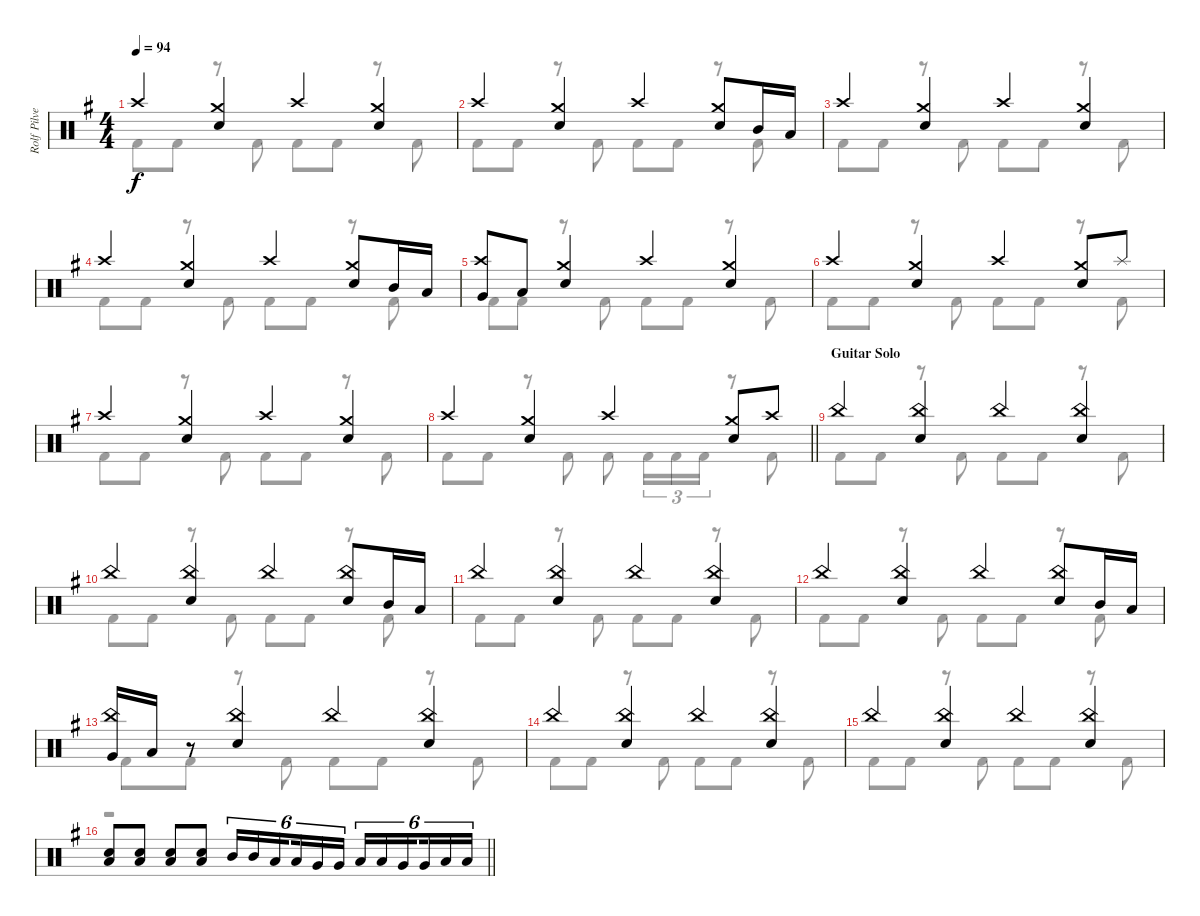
\track ("Rolf Pilve - drums" "Rolf Pilve") {instrument percussion}
\staff {score}
\articulation defaults
\voice
\ts (4 4)
\tempo 94
\clef neutral
\ks eminor "Crash high (hit)".4{dy f}
("Snare (hit) 2" "Crash medium (hit)").4 "Crash high (hit)".4 ("Crash medium (hit)" "Snare (hit) 2").4 |
"Crash high (hit)".4 ("Snare (hit) 2" "Crash medium (hit)").4 "Crash high (hit)".4 ("Crash medium (hit)" "Snare (hit) 2").8 "Mid Tom (hit)".16 "Low Tom (hit)".16 |
"Crash high (hit)".4 ("Snare (hit) 2" "Crash medium (hit)").4 "Crash high (hit)".4 ("Crash medium (hit)" "Snare (hit) 2").4 |
"Crash high (hit)".4 ("Snare (hit) 2" "Crash medium (hit)").4 "Crash high (hit)".4 ("Crash medium (hit)" "Snare (hit) 2").8 "Mid Tom (hit)".16 "Low Tom (hit)".16 |
("Crash high (hit)" "Very Low Tom (hit)").8 "Low Tom (hit)".8 ("Snare (hit) 2" "Crash medium (hit)").4 "Crash high (hit)".4 ("Crash medium (hit)" "Snare (hit) 2").4 |
"Crash high (hit)".4 ("Snare (hit) 2" "Crash medium (hit)").4 "Crash high (hit)".4 ("Crash medium (hit)" "Snare (hit) 2").8 "Splash (hit)".8 |
"Crash high (hit)".4 ("Snare (hit) 2" "Crash medium (hit)").4 "Crash high (hit)".4 ("Crash medium (hit)" "Snare (hit) 2").4 |
\barLineRight lightlight "Crash high (hit)".4
("Snare (hit) 2" "Crash medium (hit)").4 "Crash high (hit)".4 ("Crash medium (hit)" "Snare (hit) 2").8 "Crash high (hit)".8 |
\section ("" "Guitar Solo")
"China (hit)".4 ("Snare (hit) 2" "China (hit)").4 "China (hit)".4 ("Snare (hit) 2" "China (hit)").4 |
"China (hit)".4 ("Snare (hit) 2" "China (hit)").4 "China (hit)".4 ("Snare (hit) 2" "China (hit)").8 "Mid Tom (hit)".16 "Low Tom (hit)".16 |
"China (hit)".4 ("Snare (hit) 2" "China (hit)").4 "China (hit)".4 ("Snare (hit) 2" "China (hit)").4 |
"China (hit)".4 ("Snare (hit) 2" "China (hit)").4 "China (hit)".4 ("Snare (hit) 2" "China (hit)").8 "Mid Tom (hit)".16 "Low Tom (hit)".16 |
("China (hit)" "Very Low Tom (hit)").16 "Low Tom (hit)".16 r.8 ("Snare (hit) 2" "China (hit)").4 "China (hit)".4 ("Snare (hit) 2" "China (hit)").4 |
"China (hit)".4 ("Snare (hit) 2" "China (hit)").4 "China (hit)".4 ("Snare (hit) 2" "China (hit)").4 |
"China (hit)".4 ("Snare (hit) 2" "China (hit)").4 "China (hit)".4 ("Snare (hit) 2" "China (hit)").4 |
\barLineRight lightlight
("Snare (hit) 2" "Low Tom (hit)").8 ("Snare (hit) 2" "Low Tom (hit)").8 ("Snare (hit) 2" "Low Tom (hit)").8 ("Snare (hit) 2" "Low Tom (hit)").8 "Mid Tom (hit)".16{tu (6 4)} "Mid Tom (hit)".16{tu (6 4)} "Low Tom (hit)".16{tu (6 4) beam splitsecondary} "Low Tom (hit)".16{tu (6 4)} "Very Low Tom (hit)".16{tu (6 4)} "Very Low Tom (hit)".16{tu (6 4)} "Low Tom (hit)".16{tu (6 4)} "Low Tom (hit)".16{tu (6 4)} "Very Low Tom (hit)".16{tu (6 4) beam splitsecondary} "Very Low Tom (hit)".16{tu (6 4)} "Low Floor Tom (hit)".16{tu (6 4)} "Low Floor Tom (hit)".16{tu (6 4)}
\voice
\clef neutral
\ottava regular
\simile none
\ks eminor "Kick (hit) 2".8{dy f} "Kick (hit) 2".8
r.8 "Kick (hit) 2".8 "Kick (hit) 2".8 "Kick (hit) 2".8 r.8 "Kick (hit) 2".8 |
"Kick (hit) 2".8 "Kick (hit) 2".8 r.8 "Kick (hit) 2".8 "Kick (hit) 2".8 "Kick (hit) 2".8 r.8 "Kick (hit) 2".8 |
"Kick (hit) 2".8 "Kick (hit) 2".8 r.8 "Kick (hit) 2".8 "Kick (hit) 2".8 "Kick (hit) 2".8 r.8 "Kick (hit) 2".8 |
"Kick (hit) 2".8 "Kick (hit) 2".8 r.8 "Kick (hit) 2".8 "Kick (hit) 2".8 "Kick (hit) 2".8 r.8 "Kick (hit) 2".8 |
"Kick (hit) 2".8 "Kick (hit) 2".8 r.8 "Kick (hit) 2".8 "Kick (hit) 2".8 "Kick (hit) 2".8 r.8 "Kick (hit) 2".8 |
"Kick (hit) 2".8 "Kick (hit) 2".8 r.8 "Kick (hit) 2".8 "Kick (hit) 2".8 "Kick (hit) 2".8 r.8 "Kick (hit) 2".8 |
"Kick (hit) 2".8 "Kick (hit) 2".8 r.8 "Kick (hit) 2".8 "Kick (hit) 2".8 "Kick (hit) 2".8 r.8 "Kick (hit) 2".8 |
\barLineRight lightlight "Kick (hit) 2".8 "Kick (hit) 2".8
r.8 "Kick (hit) 2".8 "Kick (hit) 2".8 "Kick (hit) 2".16{tu (3 2)} "Kick (hit) 2".16{tu (3 2)} "Kick (hit) 2".16{tu (3 2)} r.8 "Kick (hit) 2".8 |
"Kick (hit) 2".8 "Kick (hit) 2".8 r.8 "Kick (hit) 2".8 "Kick (hit) 2".8 "Kick (hit) 2".8 r.8 "Kick (hit) 2".8 |
"Kick (hit) 2".8 "Kick (hit) 2".8 r.8 "Kick (hit) 2".8 "Kick (hit) 2".8 "Kick (hit) 2".8 r.8 "Kick (hit) 2".8 |
"Kick (hit) 2".8 "Kick (hit) 2".8 r.8 "Kick (hit) 2".8 "Kick (hit) 2".8 "Kick (hit) 2".8 r.8 "Kick (hit) 2".8 |
"Kick (hit) 2".8 "Kick (hit) 2".8 r.8 "Kick (hit) 2".8 "Kick (hit) 2".8 "Kick (hit) 2".8 r.8 "Kick (hit) 2".8 |
"Kick (hit) 2".8 "Kick (hit) 2".8 r.8 "Kick (hit) 2".8 "Kick (hit) 2".8 "Kick (hit) 2".8 r.8 "Kick (hit) 2".8 |
"Kick (hit) 2".8 "Kick (hit) 2".8 r.8 "Kick (hit) 2".8 "Kick (hit) 2".8 "Kick (hit) 2".8 r.8 "Kick (hit) 2".8 |
"Kick (hit) 2".8 "Kick (hit) 2".8 r.8 "Kick (hit) 2".8 "Kick (hit) 2".8 "Kick (hit) 2".8 r.8 "Kick (hit) 2".8 |
\barLineRight lightlight
r.1
